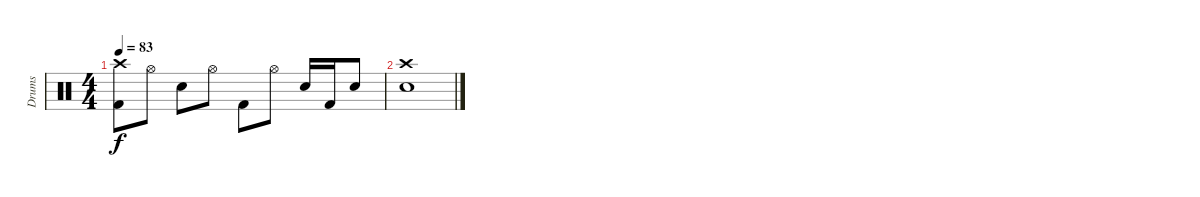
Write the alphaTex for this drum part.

\track ("Drums" "Drums") {instrument percussion}
\staff {score}
\articulation defaults
\ts (4 4)
\tempo 83
\clef neutral
\ks c
("Crash high (hit)" "Kick (hit) 2").8{dy f} "Hi-Hat (open)".8 "Snare (hit) 2".8 "Hi-Hat (open)".8 "Kick (hit) 2".8 "Hi-Hat (open)".8 "Snare (hit) 2".16 "Kick (hit) 2".16 "Snare (hit) 2".8 |
("Crash high (hit)" "Snare (hit) 2").1
